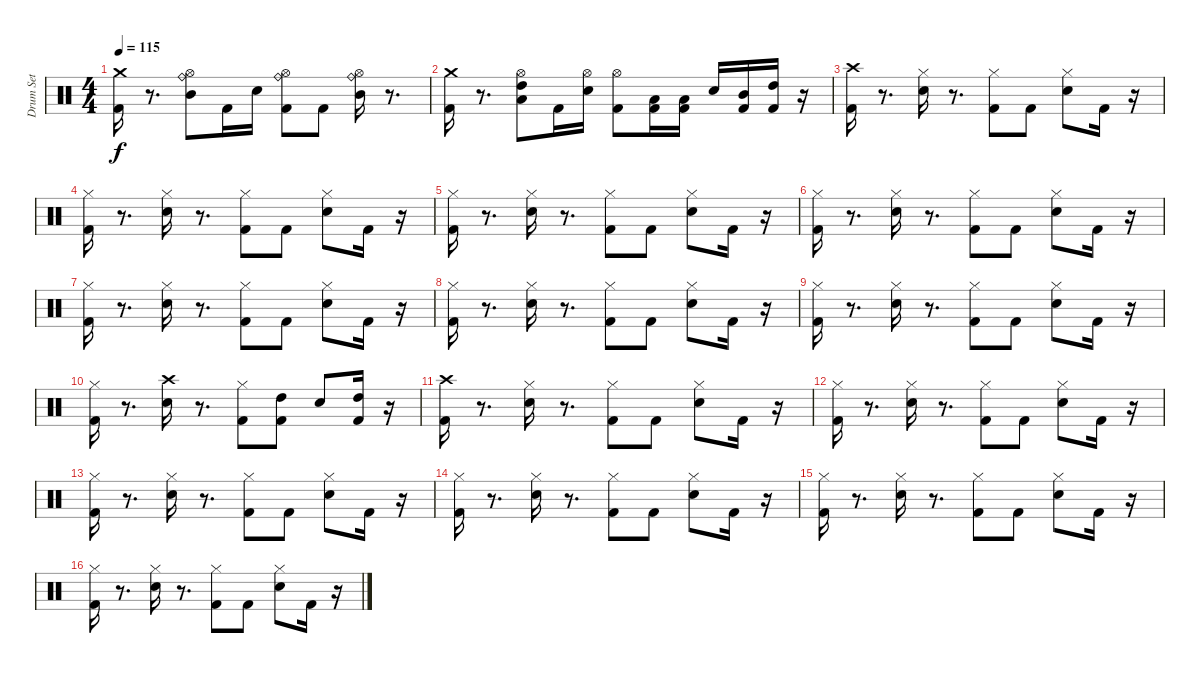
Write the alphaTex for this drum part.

\track ("Drum Set" "Drum Set") {instrument percussion}
\staff {score}
\articulation defaults
\ts (4 4)
\tempo 115
\clef neutral
\ks c
("Crash medium (hit)" "Kick (hit) 2").16{dy f} r.8{d} ("Ride (bell)" "Hi-Hat (open)" "Mid Tom (hit)").8 "Kick (hit) 2".16 "Electric Snare (hit)".16 ("Ride (bell)" "Hi-Hat (open)" "Kick (hit) 2").8 "Kick (hit) 2".8 ("Ride (bell)" "Hi-Hat (open)" "Mid Tom (hit)").16 r.8{d} |
("Crash medium (hit)" "Kick (hit) 2").16 r.8{d} ("Hi-Hat (open)" "High Tom (hit)" "Low Tom (hit)").8 "Kick (hit) 2".16 ("Hi-Hat (open)" "Electric Snare (hit)").16 ("Hi-Hat (open)" "Kick (hit) 2").8 ("Low Tom (hit)" "Kick (hit) 2").16 ("Low Tom (hit)" "Kick (hit) 2").16 "Electric Snare (hit)".16 ("Mid Tom (hit)" "Kick (hit) 2").16 ("High Tom (hit)" "Kick (hit) 2").16 r.16 |
("Crash high (hit)" "Kick (hit) 2").16 r.8{d} ("Hi-Hat (closed)" "Electric Snare (hit)").16 r.8{d} ("Hi-Hat (closed)" "Kick (hit) 2").8 "Kick (hit) 2".8 ("Hi-Hat (closed)" "Electric Snare (hit)").8 "Kick (hit) 2".16 r.16 |
("Hi-Hat (closed)" "Kick (hit) 2").16 r.8{d} ("Hi-Hat (closed)" "Electric Snare (hit)").16 r.8{d} ("Hi-Hat (closed)" "Kick (hit) 2").8 "Kick (hit) 2".8 ("Hi-Hat (closed)" "Electric Snare (hit)").8 "Kick (hit) 2".16 r.16 |
("Hi-Hat (closed)" "Kick (hit) 2").16 r.8{d} ("Hi-Hat (closed)" "Electric Snare (hit)").16 r.8{d} ("Hi-Hat (closed)" "Kick (hit) 2").8 "Kick (hit) 2".8 ("Hi-Hat (closed)" "Electric Snare (hit)").8 "Kick (hit) 2".16 r.16 |
("Hi-Hat (closed)" "Kick (hit) 2").16 r.8{d} ("Hi-Hat (closed)" "Electric Snare (hit)").16 r.8{d} ("Hi-Hat (closed)" "Kick (hit) 2").8 "Kick (hit) 2".8 ("Hi-Hat (closed)" "Electric Snare (hit)").8 "Kick (hit) 2".16 r.16 |
("Hi-Hat (closed)" "Kick (hit) 2").16 r.8{d} ("Hi-Hat (closed)" "Electric Snare (hit)").16 r.8{d} ("Hi-Hat (closed)" "Kick (hit) 2").8 "Kick (hit) 2".8 ("Hi-Hat (closed)" "Electric Snare (hit)").8 "Kick (hit) 2".16 r.16 |
("Hi-Hat (closed)" "Kick (hit) 2").16 r.8{d} ("Hi-Hat (closed)" "Electric Snare (hit)").16 r.8{d} ("Hi-Hat (closed)" "Kick (hit) 2").8 "Kick (hit) 2".8 ("Hi-Hat (closed)" "Electric Snare (hit)").8 "Kick (hit) 2".16 r.16 |
("Hi-Hat (closed)" "Kick (hit) 2").16 r.8{d} ("Hi-Hat (closed)" "Electric Snare (hit)").16 r.8{d} ("Hi-Hat (closed)" "Kick (hit) 2").8 "Kick (hit) 2".8 ("Hi-Hat (closed)" "Electric Snare (hit)").8 "Kick (hit) 2".16 r.16 |
("Hi-Hat (closed)" "Kick (hit) 2").16 r.8{d} ("Crash high (hit)" "Electric Snare (hit)").16 r.8{d} ("Hi-Hat (closed)" "Kick (hit) 2").8 ("High Tom (hit)" "Kick (hit) 2").8 "Electric Snare (hit)".8 ("High Tom (hit)" "Kick (hit) 2").16 r.16 |
("Crash high (hit)" "Kick (hit) 2").16 r.8{d} ("Hi-Hat (closed)" "Electric Snare (hit)").16 r.8{d} ("Hi-Hat (closed)" "Kick (hit) 2").8 "Kick (hit) 2".8 ("Hi-Hat (closed)" "Electric Snare (hit)").8 "Kick (hit) 2".16 r.16 |
("Hi-Hat (closed)" "Kick (hit) 2").16 r.8{d} ("Hi-Hat (closed)" "Electric Snare (hit)").16 r.8{d} ("Hi-Hat (closed)" "Kick (hit) 2").8 "Kick (hit) 2".8 ("Hi-Hat (closed)" "Electric Snare (hit)").8 "Kick (hit) 2".16 r.16 |
("Hi-Hat (closed)" "Kick (hit) 2").16 r.8{d} ("Hi-Hat (closed)" "Electric Snare (hit)").16 r.8{d} ("Hi-Hat (closed)" "Kick (hit) 2").8 "Kick (hit) 2".8 ("Hi-Hat (closed)" "Electric Snare (hit)").8 "Kick (hit) 2".16 r.16 |
("Hi-Hat (closed)" "Kick (hit) 2").16 r.8{d} ("Hi-Hat (closed)" "Electric Snare (hit)").16 r.8{d} ("Hi-Hat (closed)" "Kick (hit) 2").8 "Kick (hit) 2".8 ("Hi-Hat (closed)" "Electric Snare (hit)").8 "Kick (hit) 2".16 r.16 |
("Hi-Hat (closed)" "Kick (hit) 2").16 r.8{d} ("Hi-Hat (closed)" "Electric Snare (hit)").16 r.8{d} ("Hi-Hat (closed)" "Kick (hit) 2").8 "Kick (hit) 2".8 ("Hi-Hat (closed)" "Electric Snare (hit)").8 "Kick (hit) 2".16 r.16 |
("Hi-Hat (closed)" "Kick (hit) 2").16 r.8{d} ("Hi-Hat (closed)" "Electric Snare (hit)").16 r.8{d} ("Hi-Hat (closed)" "Kick (hit) 2").8 "Kick (hit) 2".8 ("Hi-Hat (closed)" "Electric Snare (hit)").8 "Kick (hit) 2".16 r.16
